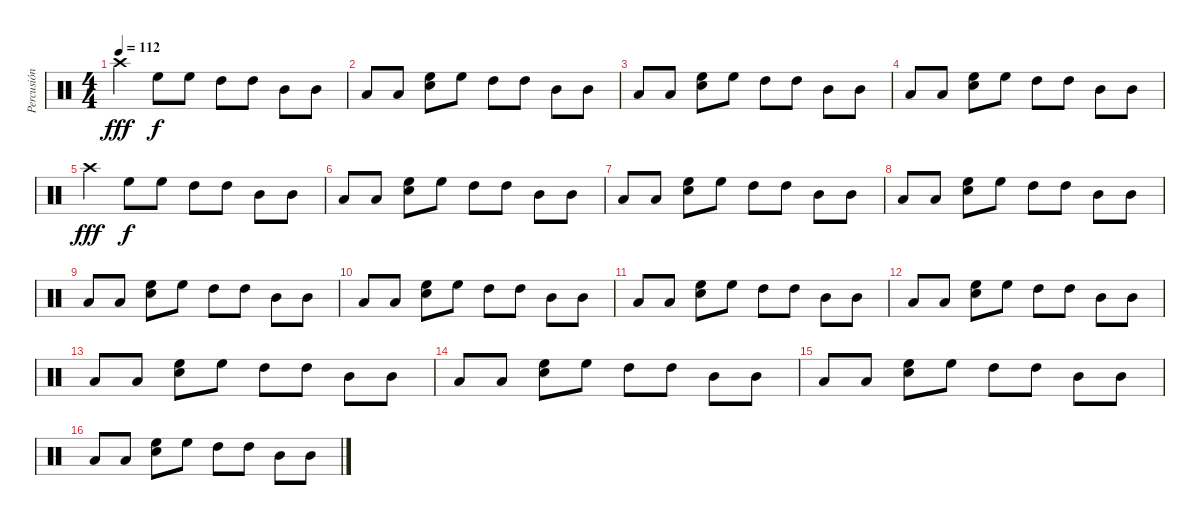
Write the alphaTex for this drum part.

\track ("Percusión" "Percusión") {instrument percussion}
\staff {score}
\articulation defaults
\ts (4 4)
\tempo 112
\clef neutral
\ks c "Crash high (hit)".4{dy fff} "High Floor Tom (hit)".8{dy f} "High Floor Tom (hit)".8 "High Tom (hit)".8 "High Tom (hit)".8 "Mid Tom (hit)".8 "Mid Tom (hit)".8
|
"Low Tom (hit)".8 "Low Tom (hit)".8 ("High Floor Tom (hit)" "Electric Snare (hit)").8 "High Floor Tom (hit)".8 "High Tom (hit)".8 "High Tom (hit)".8 "Mid Tom (hit)".8 "Mid Tom (hit)".8 |
"Low Tom (hit)".8 "Low Tom (hit)".8 ("High Floor Tom (hit)" "Electric Snare (hit)").8 "High Floor Tom (hit)".8 "High Tom (hit)".8 "High Tom (hit)".8 "Mid Tom (hit)".8 "Mid Tom (hit)".8 |
"Low Tom (hit)".8 "Low Tom (hit)".8 ("High Floor Tom (hit)" "Electric Snare (hit)").8 "High Floor Tom (hit)".8 "High Tom (hit)".8 "High Tom (hit)".8 "Mid Tom (hit)".8 "Mid Tom (hit)".8 |
"Crash high (hit)".4{dy fff} "High Floor Tom (hit)".8{dy f} "High Floor Tom (hit)".8 "High Tom (hit)".8 "High Tom (hit)".8 "Mid Tom (hit)".8 "Mid Tom (hit)".8 |
"Low Tom (hit)".8 "Low Tom (hit)".8 ("High Floor Tom (hit)" "Electric Snare (hit)").8 "High Floor Tom (hit)".8 "High Tom (hit)".8 "High Tom (hit)".8 "Mid Tom (hit)".8 "Mid Tom (hit)".8 |
"Low Tom (hit)".8 "Low Tom (hit)".8 ("High Floor Tom (hit)" "Electric Snare (hit)").8 "High Floor Tom (hit)".8 "High Tom (hit)".8 "High Tom (hit)".8 "Mid Tom (hit)".8 "Mid Tom (hit)".8 |
"Low Tom (hit)".8 "Low Tom (hit)".8 ("High Floor Tom (hit)" "Electric Snare (hit)").8 "High Floor Tom (hit)".8 "High Tom (hit)".8 "High Tom (hit)".8 "Mid Tom (hit)".8 "Mid Tom (hit)".8 |
"Low Tom (hit)".8 "Low Tom (hit)".8 ("High Floor Tom (hit)" "Electric Snare (hit)").8 "High Floor Tom (hit)".8 "High Tom (hit)".8 "High Tom (hit)".8 "Mid Tom (hit)".8 "Mid Tom (hit)".8 |
"Low Tom (hit)".8 "Low Tom (hit)".8 ("High Floor Tom (hit)" "Electric Snare (hit)").8 "High Floor Tom (hit)".8 "High Tom (hit)".8 "High Tom (hit)".8 "Mid Tom (hit)".8 "Mid Tom (hit)".8 |
"Low Tom (hit)".8 "Low Tom (hit)".8 ("High Floor Tom (hit)" "Electric Snare (hit)").8 "High Floor Tom (hit)".8 "High Tom (hit)".8 "High Tom (hit)".8 "Mid Tom (hit)".8 "Mid Tom (hit)".8 |
"Low Tom (hit)".8 "Low Tom (hit)".8 ("High Floor Tom (hit)" "Electric Snare (hit)").8 "High Floor Tom (hit)".8 "High Tom (hit)".8 "High Tom (hit)".8 "Mid Tom (hit)".8 "Mid Tom (hit)".8 |
"Low Tom (hit)".8 "Low Tom (hit)".8 ("High Floor Tom (hit)" "Electric Snare (hit)").8 "High Floor Tom (hit)".8 "High Tom (hit)".8 "High Tom (hit)".8 "Mid Tom (hit)".8 "Mid Tom (hit)".8 |
"Low Tom (hit)".8 "Low Tom (hit)".8 ("High Floor Tom (hit)" "Electric Snare (hit)").8 "High Floor Tom (hit)".8 "High Tom (hit)".8 "High Tom (hit)".8 "Mid Tom (hit)".8 "Mid Tom (hit)".8 |
"Low Tom (hit)".8 "Low Tom (hit)".8 ("High Floor Tom (hit)" "Electric Snare (hit)").8 "High Floor Tom (hit)".8 "High Tom (hit)".8 "High Tom (hit)".8 "Mid Tom (hit)".8 "Mid Tom (hit)".8 |
"Low Tom (hit)".8 "Low Tom (hit)".8 ("High Floor Tom (hit)" "Electric Snare (hit)").8 "High Floor Tom (hit)".8 "High Tom (hit)".8 "High Tom (hit)".8 "Mid Tom (hit)".8 "Mid Tom (hit)".8
